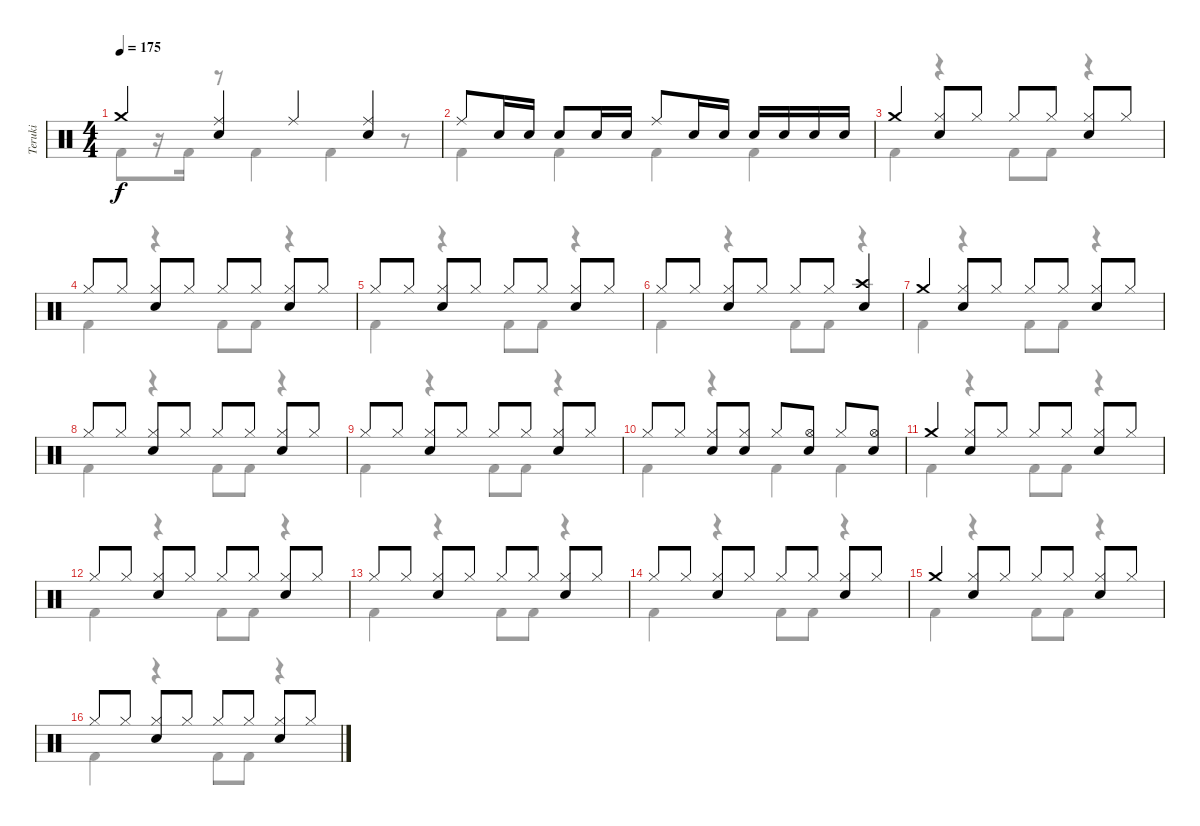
\track ("Teruki" "Teruki") {instrument percussion}
\staff {score}
\articulation defaults
\voice
\ts (4 4)
\tempo 175
\clef neutral
\ks c "Crash medium (hit)".4{dy f}
("Ride (middle)" "Snare (hit) 2").4 "Ride (middle)".4 ("Ride (middle)" "Snare (hit) 2").4 |
"Ride (middle)".8 "Snare (hit) 2".16 "Snare (hit) 2".16 "Snare (hit) 2".8 "Snare (hit) 2".16 "Snare (hit) 2".16 "Ride (middle)".8 "Snare (hit) 2".16 "Snare (hit) 2".16 "Snare (hit) 2".16 "Snare (hit) 2".16 "Snare (hit) 2".16 "Snare (hit) 2".16 |
"Crash medium (hit)".4 ("Hi-Hat (closed)" "Snare (hit) 2").8 "Hi-Hat (closed)".8 "Hi-Hat (closed)".8 "Hi-Hat (closed)".8 ("Hi-Hat (closed)" "Snare (hit) 2").8 "Hi-Hat (closed)".8 |
"Hi-Hat (closed)".8 "Hi-Hat (closed)".8 ("Hi-Hat (closed)" "Snare (hit) 2").8 "Hi-Hat (closed)".8 "Hi-Hat (closed)".8 "Hi-Hat (closed)".8 ("Hi-Hat (closed)" "Snare (hit) 2").8 "Hi-Hat (closed)".8 |
"Hi-Hat (closed)".8 "Hi-Hat (closed)".8 ("Hi-Hat (closed)" "Snare (hit) 2").8 "Hi-Hat (closed)".8 "Hi-Hat (closed)".8 "Hi-Hat (closed)".8 ("Hi-Hat (closed)" "Snare (hit) 2").8 "Hi-Hat (closed)".8 |
"Hi-Hat (closed)".8 "Hi-Hat (closed)".8 ("Hi-Hat (closed)" "Snare (hit) 2").8 "Hi-Hat (closed)".8 "Hi-Hat (closed)".8 "Hi-Hat (closed)".8 ("Crash high (hit)" "Snare (hit) 2").4 |
"Crash medium (hit)".4 ("Hi-Hat (closed)" "Snare (hit) 2").8 "Hi-Hat (closed)".8 "Hi-Hat (closed)".8 "Hi-Hat (closed)".8 ("Hi-Hat (closed)" "Snare (hit) 2").8 "Hi-Hat (closed)".8 |
"Hi-Hat (closed)".8 "Hi-Hat (closed)".8 ("Hi-Hat (closed)" "Snare (hit) 2").8 "Hi-Hat (closed)".8 "Hi-Hat (closed)".8 "Hi-Hat (closed)".8 ("Hi-Hat (closed)" "Snare (hit) 2").8 "Hi-Hat (closed)".8 |
"Hi-Hat (closed)".8 "Hi-Hat (closed)".8 ("Hi-Hat (closed)" "Snare (hit) 2").8 "Hi-Hat (closed)".8 "Hi-Hat (closed)".8 "Hi-Hat (closed)".8 ("Hi-Hat (closed)" "Snare (hit) 2").8 "Hi-Hat (closed)".8 |
"Hi-Hat (closed)".8 "Hi-Hat (closed)".8 ("Hi-Hat (closed)" "Snare (hit) 2").8 ("Hi-Hat (closed)" "Snare (hit) 2").8 "Hi-Hat (closed)".8 ("Hi-Hat (open)" "Snare (hit) 2").8 "Hi-Hat (closed)".8 ("Hi-Hat (open)" "Snare (hit) 2").8 |
"Crash medium (hit)".4 ("Hi-Hat (closed)" "Snare (hit) 2").8 "Hi-Hat (closed)".8 "Hi-Hat (closed)".8 "Hi-Hat (closed)".8 ("Hi-Hat (closed)" "Snare (hit) 2").8 "Hi-Hat (closed)".8 |
"Hi-Hat (closed)".8 "Hi-Hat (closed)".8 ("Hi-Hat (closed)" "Snare (hit) 2").8 "Hi-Hat (closed)".8 "Hi-Hat (closed)".8 "Hi-Hat (closed)".8 ("Hi-Hat (closed)" "Snare (hit) 2").8 "Hi-Hat (closed)".8 |
"Hi-Hat (closed)".8 "Hi-Hat (closed)".8 ("Hi-Hat (closed)" "Snare (hit) 2").8 "Hi-Hat (closed)".8 "Hi-Hat (closed)".8 "Hi-Hat (closed)".8 ("Hi-Hat (closed)" "Snare (hit) 2").8 "Hi-Hat (closed)".8 |
"Hi-Hat (closed)".8 "Hi-Hat (closed)".8 ("Hi-Hat (closed)" "Snare (hit) 2").8 "Hi-Hat (closed)".8 "Hi-Hat (closed)".8 "Hi-Hat (closed)".8 ("Hi-Hat (closed)" "Snare (hit) 2").8 "Hi-Hat (closed)".8 |
"Crash medium (hit)".4 ("Hi-Hat (closed)" "Snare (hit) 2").8 "Hi-Hat (closed)".8 "Hi-Hat (closed)".8 "Hi-Hat (closed)".8 ("Hi-Hat (closed)" "Snare (hit) 2").8 "Hi-Hat (closed)".8 |
"Hi-Hat (closed)".8 "Hi-Hat (closed)".8 ("Hi-Hat (closed)" "Snare (hit) 2").8 "Hi-Hat (closed)".8 "Hi-Hat (closed)".8 "Hi-Hat (closed)".8 ("Hi-Hat (closed)" "Snare (hit) 2").8 "Hi-Hat (closed)".8
\voice
\clef neutral
\ottava regular
\simile none
\ks c "Kick (hit) 2".8{dy f}
r.16 "Kick (hit) 2".16 r.8 "Kick (hit) 2".4 "Kick (hit) 2".4 r.8 |
"Kick (hit) 2".4 "Kick (hit) 2".4 "Kick (hit) 2".4 "Kick (hit) 2".4 |
"Kick (hit) 2".4 r.4 "Kick (hit) 2".8 "Kick (hit) 2".8 r.4 |
"Kick (hit) 2".4 r.4 "Kick (hit) 2".8 "Kick (hit) 2".8 r.4 |
"Kick (hit) 2".4 r.4 "Kick (hit) 2".8 "Kick (hit) 2".8 r.4 |
"Kick (hit) 2".4 r.4 "Kick (hit) 2".8 "Kick (hit) 2".8 r.4 |
"Kick (hit) 2".4 r.4 "Kick (hit) 2".8 "Kick (hit) 2".8 r.4 |
"Kick (hit) 2".4 r.4 "Kick (hit) 2".8 "Kick (hit) 2".8 r.4 |
"Kick (hit) 2".4 r.4 "Kick (hit) 2".8 "Kick (hit) 2".8 r.4 |
"Kick (hit) 2".4 r.4 "Kick (hit) 2".4 "Kick (hit) 2".4 |
"Kick (hit) 2".4 r.4 "Kick (hit) 2".8 "Kick (hit) 2".8 r.4 |
"Kick (hit) 2".4 r.4 "Kick (hit) 2".8 "Kick (hit) 2".8 r.4 |
"Kick (hit) 2".4 r.4 "Kick (hit) 2".8 "Kick (hit) 2".8 r.4 |
"Kick (hit) 2".4 r.4 "Kick (hit) 2".8 "Kick (hit) 2".8 r.4 |
"Kick (hit) 2".4 r.4 "Kick (hit) 2".8 "Kick (hit) 2".8 r.4 |
"Kick (hit) 2".4 r.4 "Kick (hit) 2".8 "Kick (hit) 2".8 r.4
